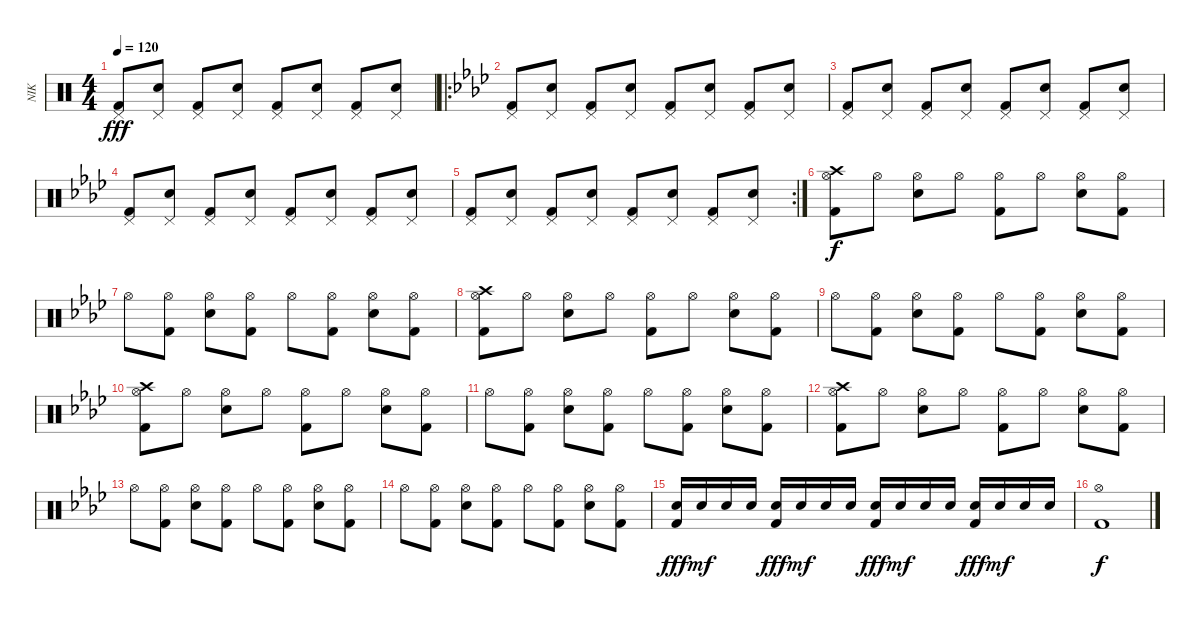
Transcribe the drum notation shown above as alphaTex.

\track ("NIK" "NIK") {instrument percussion}
\staff {score}
\articulation defaults
\ts (4 4)
\tempo 120
\clef neutral
\ks c
("Pedal Hi-Hat (hit)" "Kick (hit) 2").8{dy fff} ("Pedal Hi-Hat (hit)" "Electric Snare (hit)").8 ("Pedal Hi-Hat (hit)" "Kick (hit) 2").8 ("Pedal Hi-Hat (hit)" "Electric Snare (hit)").8 ("Pedal Hi-Hat (hit)" "Kick (hit) 2").8 ("Pedal Hi-Hat (hit)" "Electric Snare (hit)").8 ("Pedal Hi-Hat (hit)" "Kick (hit) 2").8 ("Pedal Hi-Hat (hit)" "Electric Snare (hit)").8 |
\ro
\ks ab
("Pedal Hi-Hat (hit)" "Kick (hit) 2").8 ("Pedal Hi-Hat (hit)" "Electric Snare (hit)").8 ("Pedal Hi-Hat (hit)" "Kick (hit) 2").8 ("Pedal Hi-Hat (hit)" "Electric Snare (hit)").8 ("Pedal Hi-Hat (hit)" "Kick (hit) 2").8 ("Pedal Hi-Hat (hit)" "Electric Snare (hit)").8 ("Pedal Hi-Hat (hit)" "Kick (hit) 2").8 ("Pedal Hi-Hat (hit)" "Electric Snare (hit)").8 |
("Pedal Hi-Hat (hit)" "Kick (hit) 2").8 ("Pedal Hi-Hat (hit)" "Electric Snare (hit)").8 ("Pedal Hi-Hat (hit)" "Kick (hit) 2").8 ("Pedal Hi-Hat (hit)" "Electric Snare (hit)").8 ("Pedal Hi-Hat (hit)" "Kick (hit) 2").8 ("Pedal Hi-Hat (hit)" "Electric Snare (hit)").8 ("Pedal Hi-Hat (hit)" "Kick (hit) 2").8 ("Pedal Hi-Hat (hit)" "Electric Snare (hit)").8 |
("Pedal Hi-Hat (hit)" "Kick (hit) 2").8 ("Pedal Hi-Hat (hit)" "Electric Snare (hit)").8 ("Pedal Hi-Hat (hit)" "Kick (hit) 2").8 ("Pedal Hi-Hat (hit)" "Electric Snare (hit)").8 ("Pedal Hi-Hat (hit)" "Kick (hit) 2").8 ("Pedal Hi-Hat (hit)" "Electric Snare (hit)").8 ("Pedal Hi-Hat (hit)" "Kick (hit) 2").8 ("Pedal Hi-Hat (hit)" "Electric Snare (hit)").8 |
\rc 2
("Pedal Hi-Hat (hit)" "Kick (hit) 2").8 ("Pedal Hi-Hat (hit)" "Electric Snare (hit)").8 ("Pedal Hi-Hat (hit)" "Kick (hit) 2").8 ("Pedal Hi-Hat (hit)" "Electric Snare (hit)").8 ("Pedal Hi-Hat (hit)" "Kick (hit) 2").8 ("Pedal Hi-Hat (hit)" "Electric Snare (hit)").8 ("Pedal Hi-Hat (hit)" "Kick (hit) 2").8 ("Pedal Hi-Hat (hit)" "Electric Snare (hit)").8 |
("Crash high (hit)" "Hi-Hat (open)" "Kick (hit) 2").8{dy f} "Hi-Hat (open)".8 ("Hi-Hat (open)" "Electric Snare (hit)").8 "Hi-Hat (open)".8 ("Hi-Hat (open)" "Kick (hit) 2").8 "Hi-Hat (open)".8 ("Hi-Hat (open)" "Electric Snare (hit)").8 ("Hi-Hat (open)" "Kick (hit) 2").8 |
"Hi-Hat (open)".8 ("Hi-Hat (open)" "Kick (hit) 2").8 ("Hi-Hat (open)" "Electric Snare (hit)").8 ("Hi-Hat (open)" "Kick (hit) 2").8 "Hi-Hat (open)".8 ("Hi-Hat (open)" "Kick (hit) 2").8 ("Hi-Hat (open)" "Electric Snare (hit)").8 ("Hi-Hat (open)" "Kick (hit) 2").8 |
("Crash high (hit)" "Hi-Hat (open)" "Kick (hit) 2").8 "Hi-Hat (open)".8 ("Hi-Hat (open)" "Electric Snare (hit)").8 "Hi-Hat (open)".8 ("Hi-Hat (open)" "Kick (hit) 2").8 "Hi-Hat (open)".8 ("Hi-Hat (open)" "Electric Snare (hit)").8 ("Hi-Hat (open)" "Kick (hit) 2").8 |
"Hi-Hat (open)".8 ("Hi-Hat (open)" "Kick (hit) 2").8 ("Hi-Hat (open)" "Electric Snare (hit)").8 ("Hi-Hat (open)" "Kick (hit) 2").8 "Hi-Hat (open)".8 ("Hi-Hat (open)" "Kick (hit) 2").8 ("Hi-Hat (open)" "Electric Snare (hit)").8 ("Hi-Hat (open)" "Kick (hit) 2").8 |
("Crash high (hit)" "Hi-Hat (open)" "Kick (hit) 2").8 "Hi-Hat (open)".8 ("Hi-Hat (open)" "Electric Snare (hit)").8 "Hi-Hat (open)".8 ("Hi-Hat (open)" "Kick (hit) 2").8 "Hi-Hat (open)".8 ("Hi-Hat (open)" "Electric Snare (hit)").8 ("Hi-Hat (open)" "Kick (hit) 2").8 |
"Hi-Hat (open)".8 ("Hi-Hat (open)" "Kick (hit) 2").8 ("Hi-Hat (open)" "Electric Snare (hit)").8 ("Hi-Hat (open)" "Kick (hit) 2").8 "Hi-Hat (open)".8 ("Hi-Hat (open)" "Kick (hit) 2").8 ("Hi-Hat (open)" "Electric Snare (hit)").8 ("Hi-Hat (open)" "Kick (hit) 2").8 |
("Crash high (hit)" "Hi-Hat (open)" "Kick (hit) 2").8 "Hi-Hat (open)".8 ("Hi-Hat (open)" "Electric Snare (hit)").8 "Hi-Hat (open)".8 ("Hi-Hat (open)" "Kick (hit) 2").8 "Hi-Hat (open)".8 ("Hi-Hat (open)" "Electric Snare (hit)").8 ("Hi-Hat (open)" "Kick (hit) 2").8 |
"Hi-Hat (open)".8 ("Hi-Hat (open)" "Kick (hit) 2").8 ("Hi-Hat (open)" "Electric Snare (hit)").8 ("Hi-Hat (open)" "Kick (hit) 2").8 "Hi-Hat (open)".8 ("Hi-Hat (open)" "Kick (hit) 2").8 ("Hi-Hat (open)" "Electric Snare (hit)").8 ("Hi-Hat (open)" "Kick (hit) 2").8 |
"Hi-Hat (open)".8 ("Hi-Hat (open)" "Kick (hit) 2").8 ("Hi-Hat (open)" "Electric Snare (hit)").8 ("Hi-Hat (open)" "Kick (hit) 2").8 "Hi-Hat (open)".8 ("Hi-Hat (open)" "Kick (hit) 2").8 ("Hi-Hat (open)" "Electric Snare (hit)").8 ("Hi-Hat (open)" "Kick (hit) 2").8 |
("Electric Snare (hit)" "Kick (hit) 2").16{dy fff} "Electric Snare (hit)".16{dy mf} "Electric Snare (hit)".16 "Electric Snare (hit)".16 ("Electric Snare (hit)" "Kick (hit) 2").16{dy fff} "Electric Snare (hit)".16{dy mf} "Electric Snare (hit)".16 "Electric Snare (hit)".16 ("Electric Snare (hit)" "Kick (hit) 2").16{dy fff} "Electric Snare (hit)".16{dy mf} "Electric Snare (hit)".16 "Electric Snare (hit)".16 ("Electric Snare (hit)" "Kick (hit) 2").16{dy fff} "Electric Snare (hit)".16{dy mf} "Electric Snare (hit)".16 "Electric Snare (hit)".16 |
("Hi-Hat (open)" "Kick (hit) 2").1{dy f}
